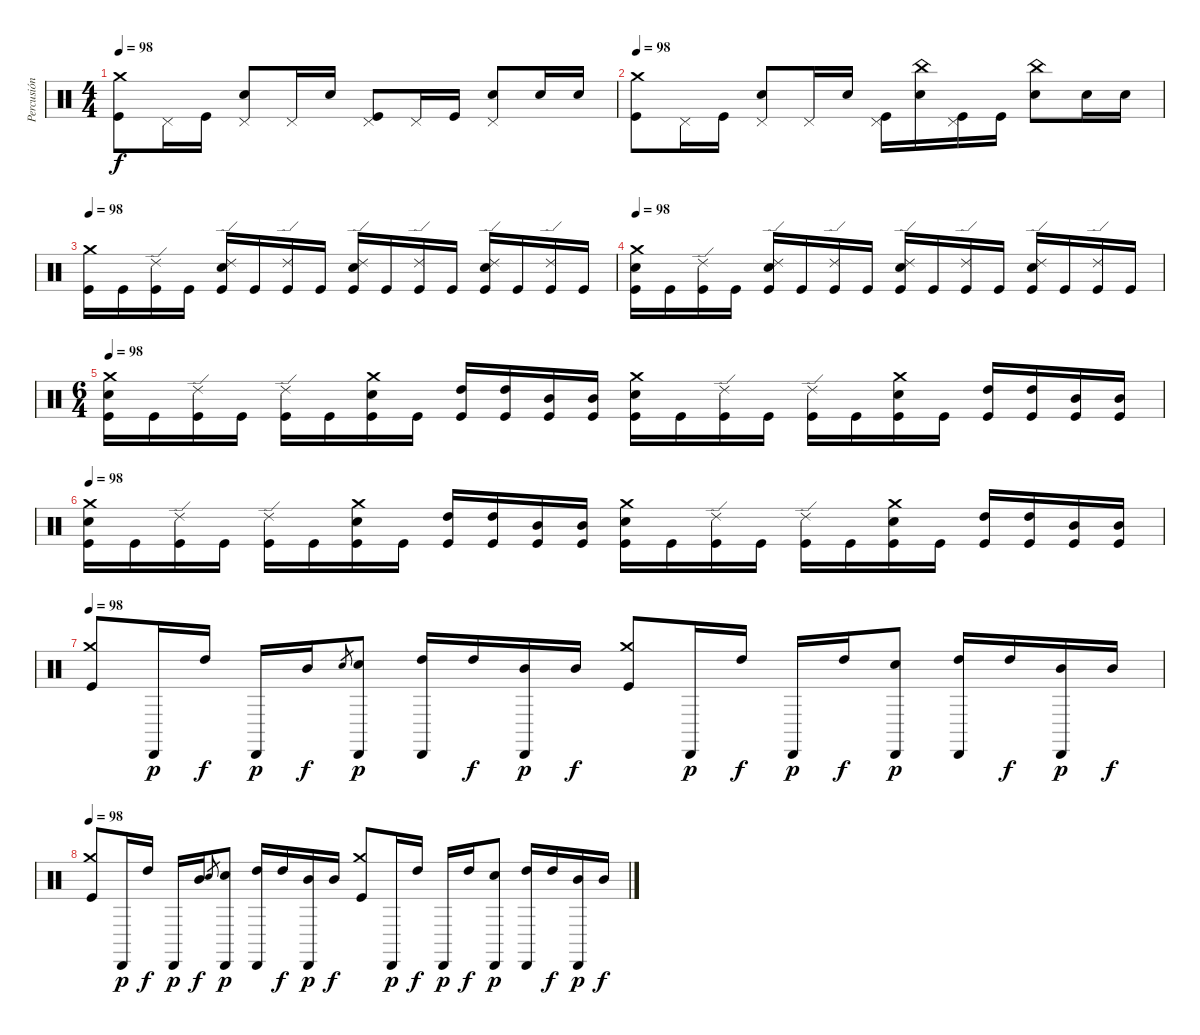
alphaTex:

\track ("Percusión" "Percusión") {instrument percussion}
\staff {score}
\articulation defaults
\ts (4 4)
\tempo 98
\clef neutral
\ks c
("Crash medium (hit)" "Kick (hit)").8{dy f} "Pedal Hi-Hat (hit)".16 "Kick (hit)".16 ("Pedal Hi-Hat (hit)" "Electric Snare (hit)").8 "Pedal Hi-Hat (hit)".16 "Electric Snare (hit)".16 ("Pedal Hi-Hat (hit)" "Kick (hit)").8 "Pedal Hi-Hat (hit)".16 "Kick (hit)".16 ("Pedal Hi-Hat (hit)" "Electric Snare (hit)").8 "Electric Snare (hit)".16 "Electric Snare (hit)".16 |
\tempo 98
("Crash medium (hit)" "Kick (hit)").8 "Pedal Hi-Hat (hit)".16 "Kick (hit)".16 ("Pedal Hi-Hat (hit)" "Electric Snare (hit)").8 "Pedal Hi-Hat (hit)".16 "Electric Snare (hit)".16 ("Pedal Hi-Hat (hit)" "Kick (hit)").16 ("China (hit)" "Electric Snare (hit)").16 ("Pedal Hi-Hat (hit)" "Kick (hit)").16 "Kick (hit)".16 ("China (hit)" "Electric Snare (hit)").8 "Electric Snare (hit)".16 "Electric Snare (hit)".16 |
\tempo 98
("Crash medium (hit)" "Kick (hit)").16 "Kick (hit)".16 ("Ride (edge) 2" "Kick (hit)").16 "Kick (hit)".16 ("Ride (edge) 2" "Electric Snare (hit)" "Kick (hit)").16 "Kick (hit)".16 ("Ride (edge) 2" "Kick (hit)").16 "Kick (hit)".16 ("Ride (edge) 2" "Electric Snare (hit)" "Kick (hit)").16 "Kick (hit)".16 ("Ride (edge) 2" "Kick (hit)").16 "Kick (hit)".16 ("Ride (edge) 2" "Electric Snare (hit)" "Kick (hit)").16 "Kick (hit)".16 ("Ride (edge) 2" "Kick (hit)").16 "Kick (hit)".16 |
\tempo 98
("Crash medium (hit)" "Electric Snare (hit)" "Kick (hit)").16 "Kick (hit)".16 ("Ride (edge) 2" "Kick (hit)").16 "Kick (hit)".16 ("Ride (edge) 2" "Electric Snare (hit)" "Kick (hit)").16 "Kick (hit)".16 ("Ride (edge) 2" "Kick (hit)").16 "Kick (hit)".16 ("Ride (edge) 2" "Electric Snare (hit)" "Kick (hit)").16 "Kick (hit)".16 ("Ride (edge) 2" "Kick (hit)").16 "Kick (hit)".16 ("Ride (edge) 2" "Electric Snare (hit)" "Kick (hit)").16 "Kick (hit)".16 ("Ride (edge) 2" "Kick (hit)").16 "Kick (hit)".16 |
\ts (6 4)
\tempo 98
("Crash medium (hit)" "Electric Snare (hit)" "Kick (hit)").16 "Kick (hit)".16 ("Ride (edge) 2" "Kick (hit)").16 "Kick (hit)".16 ("Ride (edge) 2" "Kick (hit)").16 "Kick (hit)".16 ("Crash medium (hit)" "Electric Snare (hit)" "Kick (hit)").16 "Kick (hit)".16 ("High Tom (hit)" "Kick (hit)").16 ("High Tom (hit)" "Kick (hit)").16 ("Mid Tom (hit)" "Kick (hit)").16 ("Mid Tom (hit)" "Kick (hit)").16 ("Crash medium (hit)" "Electric Snare (hit)" "Kick (hit)").16 "Kick (hit)".16 ("Ride (edge) 2" "Kick (hit)").16 "Kick (hit)".16 ("Ride (edge) 2" "Kick (hit)").16 "Kick (hit)".16 ("Crash medium (hit)" "Electric Snare (hit)" "Kick (hit)").16 "Kick (hit)".16 ("High Tom (hit)" "Kick (hit)").16 ("High Tom (hit)" "Kick (hit)").16 ("Mid Tom (hit)" "Kick (hit)").16 ("Mid Tom (hit)" "Kick (hit)").16 |
\tempo 98
("Crash medium (hit)" "Electric Snare (hit)" "Kick (hit)").16 "Kick (hit)".16 ("Ride (edge) 2" "Kick (hit)").16 "Kick (hit)".16 ("Ride (edge) 2" "Kick (hit)").16 "Kick (hit)".16 ("Crash medium (hit)" "Electric Snare (hit)" "Kick (hit)").16 "Kick (hit)".16 ("High Tom (hit)" "Kick (hit)").16 ("High Tom (hit)" "Kick (hit)").16 ("Mid Tom (hit)" "Kick (hit)").16 ("Mid Tom (hit)" "Kick (hit)").16 ("Crash medium (hit)" "Electric Snare (hit)" "Kick (hit)").16 "Kick (hit)".16 ("Ride (edge) 2" "Kick (hit)").16 "Kick (hit)".16 ("Ride (edge) 2" "Kick (hit)").16 "Kick (hit)".16 ("Crash medium (hit)" "Electric Snare (hit)" "Kick (hit)").16 "Kick (hit)".16 ("High Tom (hit)" "Kick (hit)").16 ("High Tom (hit)" "Kick (hit)").16 ("Mid Tom (hit)" "Kick (hit)").16 ("Mid Tom (hit)" "Kick (hit)").16 |
\tempo 98
("Crash medium (hit)" "Kick (hit)").8 "Cabasa (hit)".16{dy p} "High Tom (hit)".16{dy f} "Cabasa (hit)".16{dy p} "Mid Tom (hit)".16{dy f} "Electric Snare (hit)".8{gr} ("Cabasa (hit)" "Electric Snare (hit)").8{dy p} ("Cabasa (hit)" "High Tom (hit)").16 "High Tom (hit)".16{dy f} ("Cabasa (hit)" "Mid Tom (hit)").16{dy p} "Mid Tom (hit)".16{dy f} ("Crash medium (hit)" "Kick (hit)").8 "Cabasa (hit)".16{dy p} "High Tom (hit)".16{dy f} "Cabasa (hit)".16{dy p} "High Tom (hit)".16{dy f} ("Cabasa (hit)" "Electric Snare (hit)").8{dy p} ("Cabasa (hit)" "High Tom (hit)").16 "High Tom (hit)".16{dy f} ("Cabasa (hit)" "Mid Tom (hit)").16{dy p} "Mid Tom (hit)".16{dy f} |
\tempo 98
("Crash medium (hit)" "Kick (hit)").8 "Cabasa (hit)".16{dy p} "High Tom (hit)".16{dy f} "Cabasa (hit)".16{dy p} "Mid Tom (hit)".16{dy f} "Electric Snare (hit)".8{gr} ("Cabasa (hit)" "Electric Snare (hit)").8{dy p} ("Cabasa (hit)" "High Tom (hit)").16 "High Tom (hit)".16{dy f} ("Cabasa (hit)" "Mid Tom (hit)").16{dy p} "Mid Tom (hit)".16{dy f} ("Crash medium (hit)" "Kick (hit)").8 "Cabasa (hit)".16{dy p} "High Tom (hit)".16{dy f} "Cabasa (hit)".16{dy p} "High Tom (hit)".16{dy f} ("Cabasa (hit)" "Electric Snare (hit)").8{dy p} ("Cabasa (hit)" "High Tom (hit)").16 "High Tom (hit)".16{dy f} ("Cabasa (hit)" "Mid Tom (hit)").16{dy p} "Mid Tom (hit)".16{dy f}
